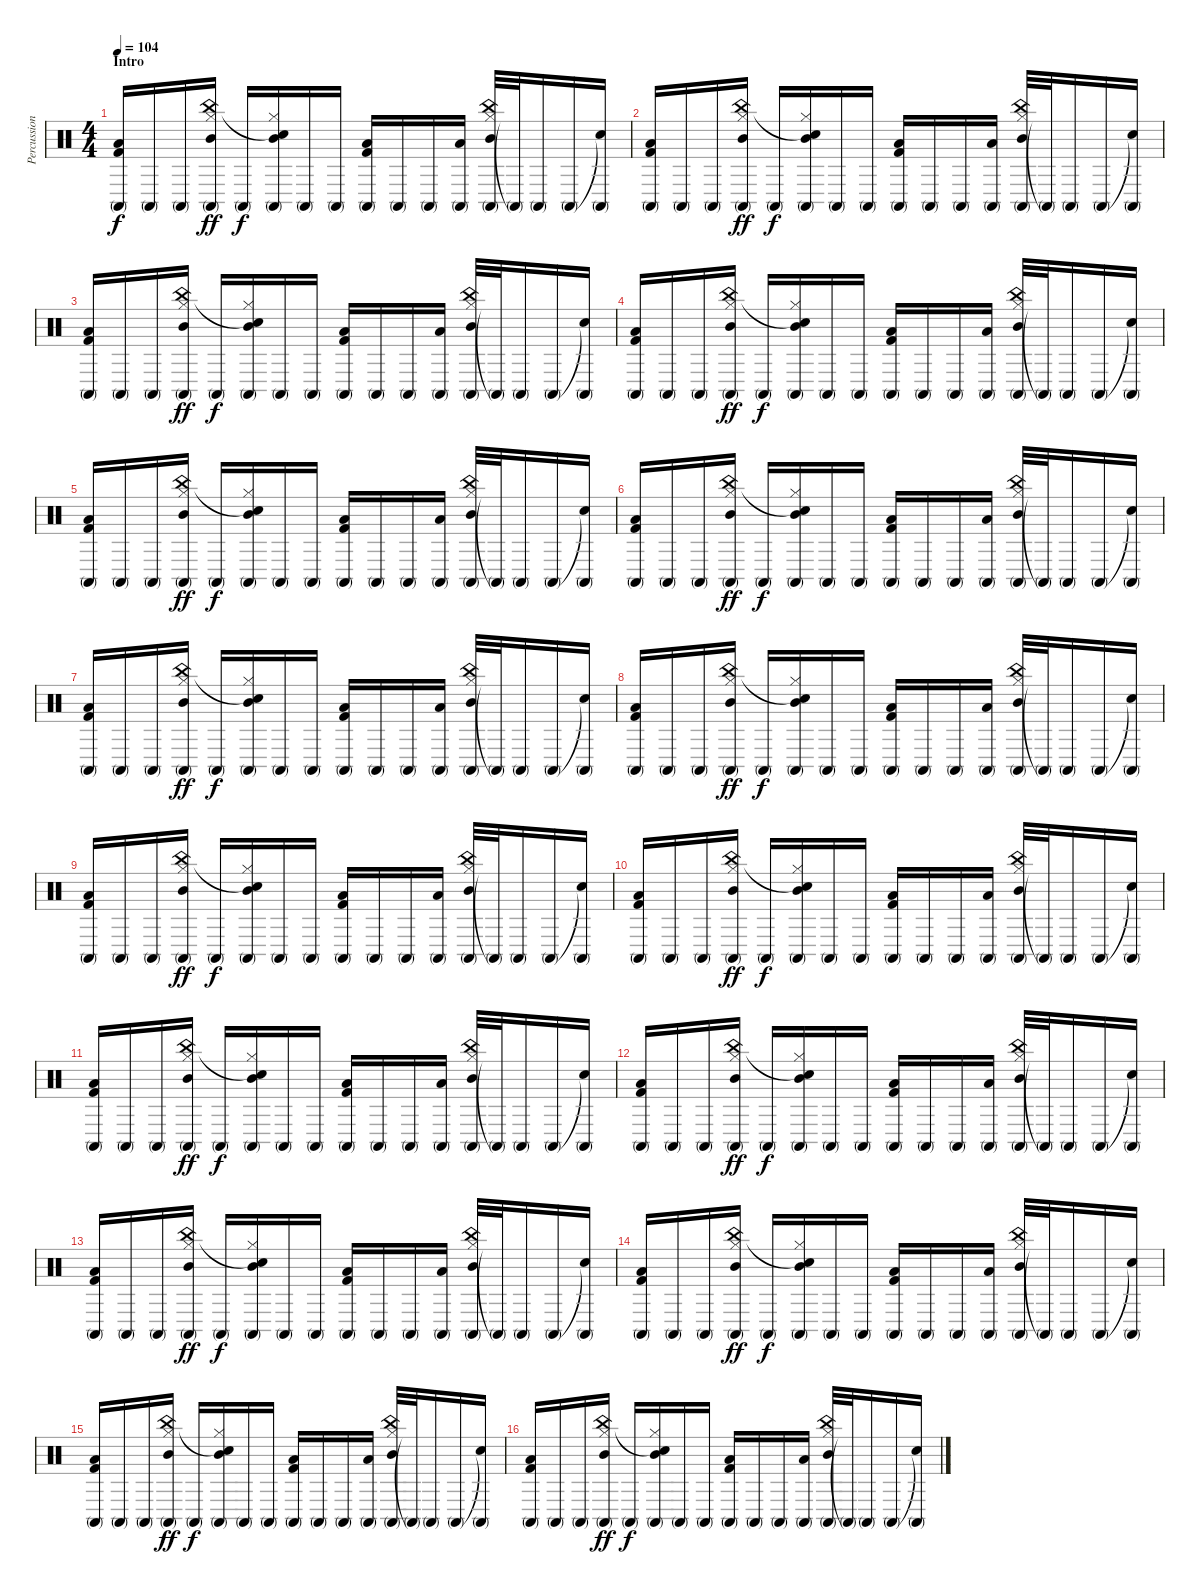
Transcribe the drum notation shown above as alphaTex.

\track ("Percussion" "Percussion") {instrument percussion}
\staff {score}
\articulation defaults
\ts (4 4)
\section ("" "Intro")
\tempo 104
\clef neutral
\ks c
("Kick (hit) 2" "Low Tom (hit)" "Conga high (mute)").16{dy f volume 12} "Conga high (mute)".16 "Conga high (mute)".16 ("Hi-Hat (closed)" "China (hit)" "Mid Tom (hit)" "Conga high (mute)").16{dy ff} "Conga high (mute)".16{dy f} ("Hi-Hat (closed)" "Snare (hit)"{t} "Mid Tom (hit)" "Conga high (mute)").16 "Conga high (mute)".16 "Conga high (mute)".16 ("Kick (hit) 2" "Low Tom (hit)" "Conga high (mute)").16 "Conga high (mute)".16 "Conga high (mute)".16 ("Low Tom (hit)" "Conga high (mute)").16 ("Hi-Hat (closed)" "China (hit)" "Mid Tom (hit)" "Conga high (mute)").32 "Conga high (mute)"{t}.32 "Conga high (mute)".16 "Conga high (mute)".16 ("Snare (hit)"{t} "Conga high (mute)").16 |
("Kick (hit) 2" "Low Tom (hit)" "Conga high (mute)").16 "Conga high (mute)".16 "Conga high (mute)".16 ("Hi-Hat (closed)" "China (hit)" "Mid Tom (hit)" "Conga high (mute)").16{dy ff} "Conga high (mute)".16{dy f} ("Hi-Hat (closed)" "Snare (hit)"{t} "Mid Tom (hit)" "Conga high (mute)").16 "Conga high (mute)".16 "Conga high (mute)".16 ("Kick (hit) 2" "Low Tom (hit)" "Conga high (mute)").16 "Conga high (mute)".16 "Conga high (mute)".16 ("Low Tom (hit)" "Conga high (mute)").16 ("Hi-Hat (closed)" "China (hit)" "Mid Tom (hit)" "Conga high (mute)").32 "Conga high (mute)"{t}.32 "Conga high (mute)".16 "Conga high (mute)".16 ("Snare (hit)"{t} "Conga high (mute)").16 |
("Kick (hit) 2" "Low Tom (hit)" "Conga high (mute)").16 "Conga high (mute)".16 "Conga high (mute)".16 ("Hi-Hat (closed)" "China (hit)" "Mid Tom (hit)" "Conga high (mute)").16{dy ff} "Conga high (mute)".16{dy f} ("Hi-Hat (closed)" "Snare (hit)"{t} "Mid Tom (hit)" "Conga high (mute)").16 "Conga high (mute)".16 "Conga high (mute)".16 ("Kick (hit) 2" "Low Tom (hit)" "Conga high (mute)").16 "Conga high (mute)".16 "Conga high (mute)".16 ("Low Tom (hit)" "Conga high (mute)").16 ("Hi-Hat (closed)" "China (hit)" "Mid Tom (hit)" "Conga high (mute)").32 "Conga high (mute)"{t}.32 "Conga high (mute)".16 "Conga high (mute)".16 ("Snare (hit)"{t} "Conga high (mute)").16 |
("Kick (hit) 2" "Low Tom (hit)" "Conga high (mute)").16 "Conga high (mute)".16 "Conga high (mute)".16 ("Hi-Hat (closed)" "China (hit)" "Mid Tom (hit)" "Conga high (mute)").16{dy ff} "Conga high (mute)".16{dy f} ("Hi-Hat (closed)" "Snare (hit)"{t} "Mid Tom (hit)" "Conga high (mute)").16 "Conga high (mute)".16 "Conga high (mute)".16 ("Kick (hit) 2" "Low Tom (hit)" "Conga high (mute)").16 "Conga high (mute)".16 "Conga high (mute)".16 ("Low Tom (hit)" "Conga high (mute)").16 ("Hi-Hat (closed)" "China (hit)" "Mid Tom (hit)" "Conga high (mute)").32 "Conga high (mute)"{t}.32 "Conga high (mute)".16 "Conga high (mute)".16 ("Snare (hit)"{t} "Conga high (mute)").16 |
("Kick (hit) 2" "Low Tom (hit)" "Conga high (mute)").16 "Conga high (mute)".16 "Conga high (mute)".16 ("Hi-Hat (closed)" "China (hit)" "Mid Tom (hit)" "Conga high (mute)").16{dy ff} "Conga high (mute)".16{dy f} ("Hi-Hat (closed)" "Snare (hit)"{t} "Mid Tom (hit)" "Conga high (mute)").16 "Conga high (mute)".16 "Conga high (mute)".16 ("Kick (hit) 2" "Low Tom (hit)" "Conga high (mute)").16 "Conga high (mute)".16 "Conga high (mute)".16 ("Low Tom (hit)" "Conga high (mute)").16 ("Hi-Hat (closed)" "China (hit)" "Mid Tom (hit)" "Conga high (mute)").32 "Conga high (mute)"{t}.32 "Conga high (mute)".16 "Conga high (mute)".16 ("Snare (hit)"{t} "Conga high (mute)").16 |
("Kick (hit) 2" "Low Tom (hit)" "Conga high (mute)").16 "Conga high (mute)".16 "Conga high (mute)".16 ("Hi-Hat (closed)" "China (hit)" "Mid Tom (hit)" "Conga high (mute)").16{dy ff} "Conga high (mute)".16{dy f} ("Hi-Hat (closed)" "Snare (hit)"{t} "Mid Tom (hit)" "Conga high (mute)").16 "Conga high (mute)".16 "Conga high (mute)".16 ("Kick (hit) 2" "Low Tom (hit)" "Conga high (mute)").16 "Conga high (mute)".16 "Conga high (mute)".16 ("Low Tom (hit)" "Conga high (mute)").16 ("Hi-Hat (closed)" "China (hit)" "Mid Tom (hit)" "Conga high (mute)").32 "Conga high (mute)"{t}.32 "Conga high (mute)".16 "Conga high (mute)".16 ("Snare (hit)"{t} "Conga high (mute)").16 |
("Kick (hit) 2" "Low Tom (hit)" "Conga high (mute)").16 "Conga high (mute)".16 "Conga high (mute)".16 ("Hi-Hat (closed)" "China (hit)" "Mid Tom (hit)" "Conga high (mute)").16{dy ff} "Conga high (mute)".16{dy f} ("Hi-Hat (closed)" "Snare (hit)"{t} "Mid Tom (hit)" "Conga high (mute)").16 "Conga high (mute)".16 "Conga high (mute)".16 ("Kick (hit) 2" "Low Tom (hit)" "Conga high (mute)").16 "Conga high (mute)".16 "Conga high (mute)".16 ("Low Tom (hit)" "Conga high (mute)").16 ("Hi-Hat (closed)" "China (hit)" "Mid Tom (hit)" "Conga high (mute)").32 "Conga high (mute)"{t}.32 "Conga high (mute)".16 "Conga high (mute)".16 ("Snare (hit)"{t} "Conga high (mute)").16 |
("Kick (hit) 2" "Low Tom (hit)" "Conga high (mute)").16 "Conga high (mute)".16 "Conga high (mute)".16 ("Hi-Hat (closed)" "China (hit)" "Mid Tom (hit)" "Conga high (mute)").16{dy ff} "Conga high (mute)".16{dy f} ("Hi-Hat (closed)" "Snare (hit)"{t} "Mid Tom (hit)" "Conga high (mute)").16 "Conga high (mute)".16 "Conga high (mute)".16 ("Kick (hit) 2" "Low Tom (hit)" "Conga high (mute)").16 "Conga high (mute)".16 "Conga high (mute)".16 ("Low Tom (hit)" "Conga high (mute)").16 ("Hi-Hat (closed)" "China (hit)" "Mid Tom (hit)" "Conga high (mute)").32 "Conga high (mute)"{t}.32 "Conga high (mute)".16 "Conga high (mute)".16 ("Snare (hit)"{t} "Conga high (mute)").16 |
("Kick (hit) 2" "Low Tom (hit)" "Conga high (mute)").16 "Conga high (mute)".16 "Conga high (mute)".16 ("Hi-Hat (closed)" "China (hit)" "Mid Tom (hit)" "Conga high (mute)").16{dy ff} "Conga high (mute)".16{dy f} ("Hi-Hat (closed)" "Snare (hit)"{t} "Mid Tom (hit)" "Conga high (mute)").16 "Conga high (mute)".16 "Conga high (mute)".16 ("Kick (hit) 2" "Low Tom (hit)" "Conga high (mute)").16 "Conga high (mute)".16 "Conga high (mute)".16 ("Low Tom (hit)" "Conga high (mute)").16 ("Hi-Hat (closed)" "China (hit)" "Mid Tom (hit)" "Conga high (mute)").32 "Conga high (mute)"{t}.32 "Conga high (mute)".16 "Conga high (mute)".16 ("Snare (hit)"{t} "Conga high (mute)").16 |
("Kick (hit) 2" "Low Tom (hit)" "Conga high (mute)").16 "Conga high (mute)".16 "Conga high (mute)".16 ("Hi-Hat (closed)" "China (hit)" "Mid Tom (hit)" "Conga high (mute)").16{dy ff} "Conga high (mute)".16{dy f} ("Hi-Hat (closed)" "Snare (hit)"{t} "Mid Tom (hit)" "Conga high (mute)").16 "Conga high (mute)".16 "Conga high (mute)".16 ("Kick (hit) 2" "Low Tom (hit)" "Conga high (mute)").16 "Conga high (mute)".16 "Conga high (mute)".16 ("Low Tom (hit)" "Conga high (mute)").16 ("Hi-Hat (closed)" "China (hit)" "Mid Tom (hit)" "Conga high (mute)").32 "Conga high (mute)"{t}.32 "Conga high (mute)".16 "Conga high (mute)".16 ("Snare (hit)"{t} "Conga high (mute)").16 |
("Kick (hit) 2" "Low Tom (hit)" "Conga high (mute)").16 "Conga high (mute)".16 "Conga high (mute)".16 ("Hi-Hat (closed)" "China (hit)" "Mid Tom (hit)" "Conga high (mute)").16{dy ff} "Conga high (mute)".16{dy f} ("Hi-Hat (closed)" "Snare (hit)"{t} "Mid Tom (hit)" "Conga high (mute)").16 "Conga high (mute)".16 "Conga high (mute)".16 ("Kick (hit) 2" "Low Tom (hit)" "Conga high (mute)").16 "Conga high (mute)".16 "Conga high (mute)".16 ("Low Tom (hit)" "Conga high (mute)").16 ("Hi-Hat (closed)" "China (hit)" "Mid Tom (hit)" "Conga high (mute)").32 "Conga high (mute)"{t}.32 "Conga high (mute)".16 "Conga high (mute)".16 ("Snare (hit)"{t} "Conga high (mute)").16 |
("Kick (hit) 2" "Low Tom (hit)" "Conga high (mute)").16 "Conga high (mute)".16 "Conga high (mute)".16 ("Hi-Hat (closed)" "China (hit)" "Mid Tom (hit)" "Conga high (mute)").16{dy ff} "Conga high (mute)".16{dy f} ("Hi-Hat (closed)" "Snare (hit)"{t} "Mid Tom (hit)" "Conga high (mute)").16 "Conga high (mute)".16 "Conga high (mute)".16 ("Kick (hit) 2" "Low Tom (hit)" "Conga high (mute)").16 "Conga high (mute)".16 "Conga high (mute)".16 ("Low Tom (hit)" "Conga high (mute)").16 ("Hi-Hat (closed)" "China (hit)" "Mid Tom (hit)" "Conga high (mute)").32 "Conga high (mute)"{t}.32 "Conga high (mute)".16 "Conga high (mute)".16 ("Snare (hit)"{t} "Conga high (mute)").16 |
("Kick (hit) 2" "Low Tom (hit)" "Conga high (mute)").16 "Conga high (mute)".16 "Conga high (mute)".16 ("Hi-Hat (closed)" "China (hit)" "Mid Tom (hit)" "Conga high (mute)").16{dy ff} "Conga high (mute)".16{dy f} ("Hi-Hat (closed)" "Snare (hit)"{t} "Mid Tom (hit)" "Conga high (mute)").16 "Conga high (mute)".16 "Conga high (mute)".16 ("Kick (hit) 2" "Low Tom (hit)" "Conga high (mute)").16 "Conga high (mute)".16 "Conga high (mute)".16 ("Low Tom (hit)" "Conga high (mute)").16 ("Hi-Hat (closed)" "China (hit)" "Mid Tom (hit)" "Conga high (mute)").32 "Conga high (mute)"{t}.32 "Conga high (mute)".16 "Conga high (mute)".16 ("Snare (hit)"{t} "Conga high (mute)").16 |
("Kick (hit) 2" "Low Tom (hit)" "Conga high (mute)").16 "Conga high (mute)".16 "Conga high (mute)".16 ("Hi-Hat (closed)" "China (hit)" "Mid Tom (hit)" "Conga high (mute)").16{dy ff} "Conga high (mute)".16{dy f} ("Hi-Hat (closed)" "Snare (hit)"{t} "Mid Tom (hit)" "Conga high (mute)").16 "Conga high (mute)".16 "Conga high (mute)".16 ("Kick (hit) 2" "Low Tom (hit)" "Conga high (mute)").16 "Conga high (mute)".16 "Conga high (mute)".16 ("Low Tom (hit)" "Conga high (mute)").16 ("Hi-Hat (closed)" "China (hit)" "Mid Tom (hit)" "Conga high (mute)").32 "Conga high (mute)"{t}.32 "Conga high (mute)".16 "Conga high (mute)".16 ("Snare (hit)"{t} "Conga high (mute)").16 |
("Kick (hit) 2" "Low Tom (hit)" "Conga high (mute)").16 "Conga high (mute)".16 "Conga high (mute)".16 ("Hi-Hat (closed)" "China (hit)" "Mid Tom (hit)" "Conga high (mute)").16{dy ff} "Conga high (mute)".16{dy f} ("Hi-Hat (closed)" "Snare (hit)"{t} "Mid Tom (hit)" "Conga high (mute)").16 "Conga high (mute)".16 "Conga high (mute)".16 ("Kick (hit) 2" "Low Tom (hit)" "Conga high (mute)").16 "Conga high (mute)".16 "Conga high (mute)".16 ("Low Tom (hit)" "Conga high (mute)").16 ("Hi-Hat (closed)" "China (hit)" "Mid Tom (hit)" "Conga high (mute)").32 "Conga high (mute)"{t}.32 "Conga high (mute)".16 "Conga high (mute)".16 ("Snare (hit)"{t} "Conga high (mute)").16 |
("Kick (hit) 2" "Low Tom (hit)" "Conga high (mute)").16 "Conga high (mute)".16 "Conga high (mute)".16 ("Hi-Hat (closed)" "China (hit)" "Mid Tom (hit)" "Conga high (mute)").16{dy ff} "Conga high (mute)".16{dy f} ("Hi-Hat (closed)" "Snare (hit)"{t} "Mid Tom (hit)" "Conga high (mute)").16 "Conga high (mute)".16 "Conga high (mute)".16 ("Kick (hit) 2" "Low Tom (hit)" "Conga high (mute)").16 "Conga high (mute)".16 "Conga high (mute)".16 ("Low Tom (hit)" "Conga high (mute)").16 ("Hi-Hat (closed)" "China (hit)" "Mid Tom (hit)" "Conga high (mute)").32 "Conga high (mute)"{t}.32 "Conga high (mute)".16 "Conga high (mute)".16 ("Snare (hit)"{t} "Conga high (mute)").16
